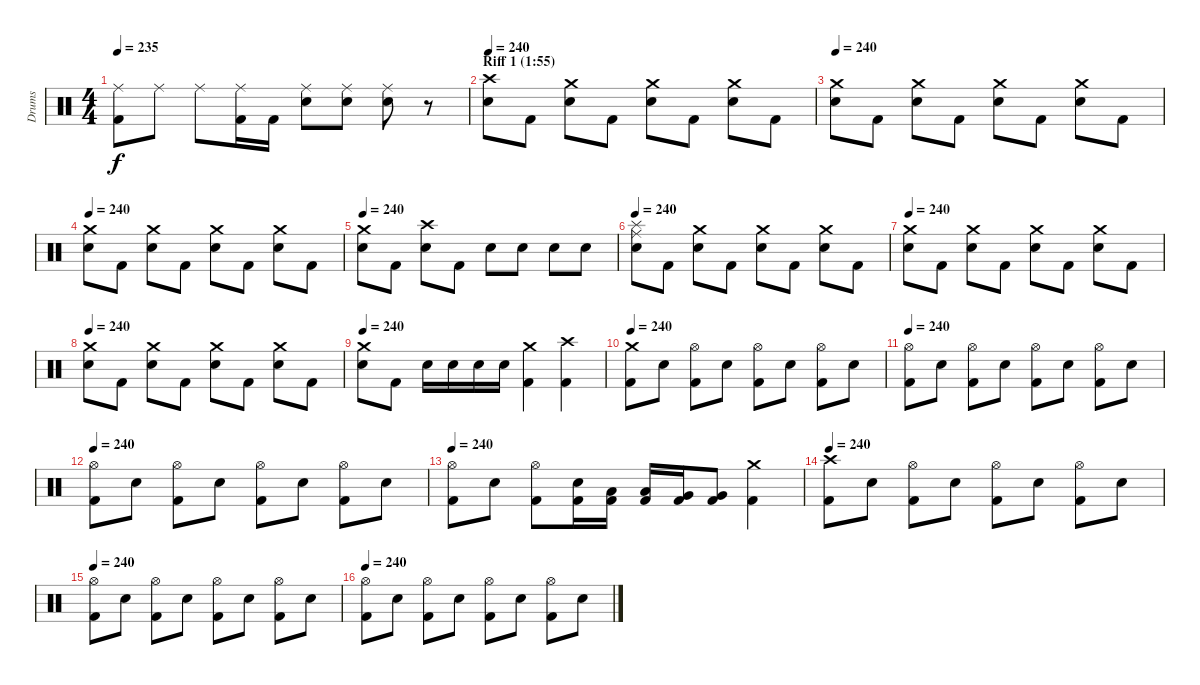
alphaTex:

\track ("Drums" "Drums") {instrument percussion}
\staff {score}
\articulation defaults
\ts (4 4)
\tempo 235
\clef neutral
\ks c
("Ride (middle)" "Kick (hit) 2").8{dy f} "Ride (middle)".8 "Ride (middle)".8 ("Ride (middle)" "Kick (hit) 2").16 "Kick (hit) 2".16 ("Ride (middle)" "Electric Snare (hit)").8 ("Ride (middle)" "Electric Snare (hit)").8 ("Ride (middle)" "Electric Snare (hit)").8 r.8 |
\section ("" "Riff 1 (1:55)")
\tempo 240
("Crash high (hit)" "Electric Snare (hit)").8 "Kick (hit) 2".8 ("Crash medium (hit)" "Electric Snare (hit)").8 "Kick (hit) 2".8 ("Crash medium (hit)" "Electric Snare (hit)").8 "Kick (hit) 2".8 ("Crash medium (hit)" "Electric Snare (hit)").8 "Kick (hit) 2".8 |
\tempo 240
("Crash medium (hit)" "Electric Snare (hit)").8 "Kick (hit) 2".8 ("Crash medium (hit)" "Electric Snare (hit)").8 "Kick (hit) 2".8 ("Crash medium (hit)" "Electric Snare (hit)").8 "Kick (hit) 2".8 ("Crash medium (hit)" "Electric Snare (hit)").8 "Kick (hit) 2".8 |
\tempo 240
("Crash medium (hit)" "Electric Snare (hit)").8 "Kick (hit) 2".8 ("Crash medium (hit)" "Electric Snare (hit)").8 "Kick (hit) 2".8 ("Crash medium (hit)" "Electric Snare (hit)").8 "Kick (hit) 2".8 ("Crash medium (hit)" "Electric Snare (hit)").8 "Kick (hit) 2".8 |
\tempo 240
("Crash medium (hit)" "Electric Snare (hit)").8 "Kick (hit) 2".8 ("Crash high (hit)" "Electric Snare (hit)").8 "Kick (hit) 2".8 "Electric Snare (hit)".8 "Electric Snare (hit)".8 "Electric Snare (hit)".8 "Electric Snare (hit)".8 |
\tempo 240
("Splash (hit)" "Ride (middle)" "Electric Snare (hit)").8 "Kick (hit) 2".8 ("Crash medium (hit)" "Electric Snare (hit)").8 "Kick (hit) 2".8 ("Crash medium (hit)" "Electric Snare (hit)").8 "Kick (hit) 2".8 ("Crash medium (hit)" "Electric Snare (hit)").8 "Kick (hit) 2".8 |
\tempo 240
("Crash medium (hit)" "Electric Snare (hit)").8 "Kick (hit) 2".8 ("Crash medium (hit)" "Electric Snare (hit)").8 "Kick (hit) 2".8 ("Crash medium (hit)" "Electric Snare (hit)").8 "Kick (hit) 2".8 ("Crash medium (hit)" "Electric Snare (hit)").8 "Kick (hit) 2".8 |
\tempo 240
("Crash medium (hit)" "Electric Snare (hit)").8 "Kick (hit) 2".8 ("Crash medium (hit)" "Electric Snare (hit)").8 "Kick (hit) 2".8 ("Crash medium (hit)" "Electric Snare (hit)").8 "Kick (hit) 2".8 ("Crash medium (hit)" "Electric Snare (hit)").8 "Kick (hit) 2".8 |
\tempo 240
("Crash medium (hit)" "Electric Snare (hit)").8 "Kick (hit) 2".8 "Electric Snare (hit)".16 "Electric Snare (hit)".16 "Electric Snare (hit)".16 "Electric Snare (hit)".16 ("Crash medium (hit)" "Kick (hit) 2").4 ("Crash high (hit)" "Kick (hit) 2").4 |
\tempo 240
("Crash medium (hit)" "Kick (hit) 2").8 "Electric Snare (hit)".8 ("Hi-Hat (open)" "Kick (hit) 2").8 "Electric Snare (hit)".8 ("Hi-Hat (open)" "Kick (hit) 2").8 "Electric Snare (hit)".8 ("Hi-Hat (open)" "Kick (hit) 2").8 "Electric Snare (hit)".8 |
\tempo 240
("Hi-Hat (open)" "Kick (hit) 2").8 "Electric Snare (hit)".8 ("Hi-Hat (open)" "Kick (hit) 2").8 "Electric Snare (hit)".8 ("Hi-Hat (open)" "Kick (hit) 2").8 "Electric Snare (hit)".8 ("Hi-Hat (open)" "Kick (hit) 2").8 "Electric Snare (hit)".8 |
\tempo 240
("Hi-Hat (open)" "Kick (hit) 2").8 "Electric Snare (hit)".8 ("Hi-Hat (open)" "Kick (hit) 2").8 "Electric Snare (hit)".8 ("Hi-Hat (open)" "Kick (hit) 2").8 "Electric Snare (hit)".8 ("Hi-Hat (open)" "Kick (hit) 2").8 "Electric Snare (hit)".8 |
\tempo 240
("Hi-Hat (open)" "Kick (hit) 2").8 "Electric Snare (hit)".8 ("Hi-Hat (open)" "Kick (hit) 2").8 ("Electric Snare (hit)" "Kick (hit) 2").16 ("Low Tom (hit)" "Kick (hit) 2").16 ("Low Tom (hit)" "Kick (hit) 2").16 ("Very Low Tom (hit)" "Kick (hit) 2").16 ("Very Low Tom (hit)" "Kick (hit) 2").8 ("Crash medium (hit)" "Kick (hit) 2").4 |
\tempo 240
("Crash high (hit)" "Kick (hit) 2").8 "Electric Snare (hit)".8 ("Hi-Hat (open)" "Kick (hit) 2").8 "Electric Snare (hit)".8 ("Hi-Hat (open)" "Kick (hit) 2").8 "Electric Snare (hit)".8 ("Hi-Hat (open)" "Kick (hit) 2").8 "Electric Snare (hit)".8 |
\tempo 240
("Hi-Hat (open)" "Kick (hit) 2").8 "Electric Snare (hit)".8 ("Hi-Hat (open)" "Kick (hit) 2").8 "Electric Snare (hit)".8 ("Hi-Hat (open)" "Kick (hit) 2").8 "Electric Snare (hit)".8 ("Hi-Hat (open)" "Kick (hit) 2").8 "Electric Snare (hit)".8 |
\tempo 240
("Hi-Hat (open)" "Kick (hit) 2").8 "Electric Snare (hit)".8 ("Hi-Hat (open)" "Kick (hit) 2").8 "Electric Snare (hit)".8 ("Hi-Hat (open)" "Kick (hit) 2").8 "Electric Snare (hit)".8 ("Hi-Hat (open)" "Kick (hit) 2").8 "Electric Snare (hit)".8
